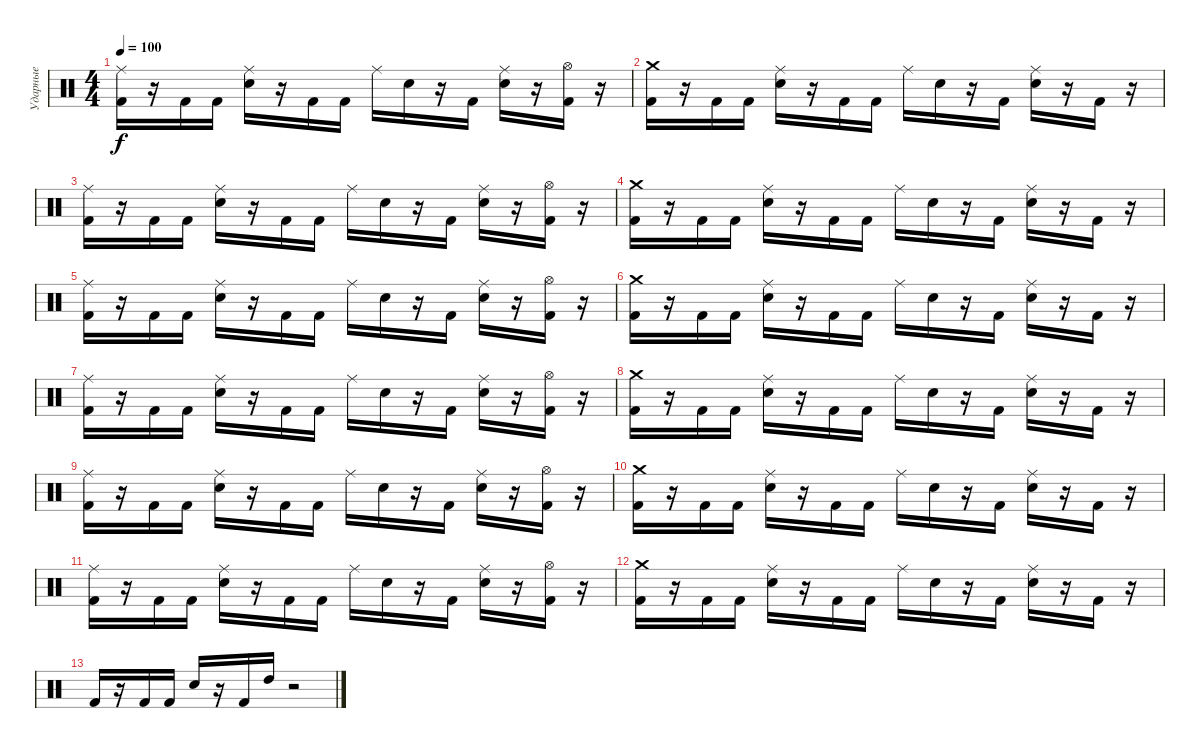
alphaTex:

\track ("Ударные" "Ударные") {instrument percussion}
\staff {score}
\articulation defaults
\ts (4 4)
\tempo 100
\clef neutral
\ks c
("Kick (hit) 2" "Ride (middle)").16{dy f} r.16 "Kick (hit) 2".16 "Kick (hit) 2".16 ("Electric Snare (hit)" "Ride (middle)").16 r.16 "Kick (hit) 2".16 "Kick (hit) 2".16 "Ride (middle)".16 "Electric Snare (hit)".16 r.16 "Kick (hit) 2".16 ("Electric Snare (hit)" "Ride (middle)").16 r.16 ("Kick (hit) 2" "Hi-Hat (open)").16 r.16 |
("Kick (hit) 2" "Crash medium (hit)").16 r.16 "Kick (hit) 2".16 "Kick (hit) 2".16 ("Electric Snare (hit)" "Ride (middle)").16 r.16 "Kick (hit) 2".16 "Kick (hit) 2".16 "Ride (middle)".16 "Electric Snare (hit)".16 r.16 "Kick (hit) 2".16 ("Electric Snare (hit)" "Ride (middle)").16 r.16 "Kick (hit) 2".16 r.16 |
("Kick (hit) 2" "Ride (middle)").16 r.16 "Kick (hit) 2".16 "Kick (hit) 2".16 ("Electric Snare (hit)" "Ride (middle)").16 r.16 "Kick (hit) 2".16 "Kick (hit) 2".16 "Ride (middle)".16 "Electric Snare (hit)".16 r.16 "Kick (hit) 2".16 ("Electric Snare (hit)" "Ride (middle)").16 r.16 ("Kick (hit) 2" "Hi-Hat (open)").16 r.16 |
("Kick (hit) 2" "Crash medium (hit)").16 r.16 "Kick (hit) 2".16 "Kick (hit) 2".16 ("Electric Snare (hit)" "Ride (middle)").16 r.16 "Kick (hit) 2".16 "Kick (hit) 2".16 "Ride (middle)".16 "Electric Snare (hit)".16 r.16 "Kick (hit) 2".16 ("Electric Snare (hit)" "Ride (middle)").16 r.16 "Kick (hit) 2".16 r.16 |
("Kick (hit) 2" "Ride (middle)").16 r.16 "Kick (hit) 2".16 "Kick (hit) 2".16 ("Electric Snare (hit)" "Ride (middle)").16 r.16 "Kick (hit) 2".16 "Kick (hit) 2".16 "Ride (middle)".16 "Electric Snare (hit)".16 r.16 "Kick (hit) 2".16 ("Electric Snare (hit)" "Ride (middle)").16 r.16 ("Kick (hit) 2" "Hi-Hat (open)").16 r.16 |
("Kick (hit) 2" "Crash medium (hit)").16 r.16 "Kick (hit) 2".16 "Kick (hit) 2".16 ("Electric Snare (hit)" "Ride (middle)").16 r.16 "Kick (hit) 2".16 "Kick (hit) 2".16 "Ride (middle)".16 "Electric Snare (hit)".16 r.16 "Kick (hit) 2".16 ("Electric Snare (hit)" "Ride (middle)").16 r.16 "Kick (hit) 2".16 r.16 |
("Kick (hit) 2" "Ride (middle)").16 r.16 "Kick (hit) 2".16 "Kick (hit) 2".16 ("Electric Snare (hit)" "Ride (middle)").16 r.16 "Kick (hit) 2".16 "Kick (hit) 2".16 "Ride (middle)".16 "Electric Snare (hit)".16 r.16 "Kick (hit) 2".16 ("Electric Snare (hit)" "Ride (middle)").16 r.16 ("Kick (hit) 2" "Hi-Hat (open)").16 r.16 |
("Kick (hit) 2" "Crash medium (hit)").16 r.16 "Kick (hit) 2".16 "Kick (hit) 2".16 ("Electric Snare (hit)" "Ride (middle)").16 r.16 "Kick (hit) 2".16 "Kick (hit) 2".16 "Ride (middle)".16 "Electric Snare (hit)".16 r.16 "Kick (hit) 2".16 ("Electric Snare (hit)" "Ride (middle)").16 r.16 "Kick (hit) 2".16 r.16 |
("Kick (hit) 2" "Ride (middle)").16 r.16 "Kick (hit) 2".16 "Kick (hit) 2".16 ("Electric Snare (hit)" "Ride (middle)").16 r.16 "Kick (hit) 2".16 "Kick (hit) 2".16 "Ride (middle)".16 "Electric Snare (hit)".16 r.16 "Kick (hit) 2".16 ("Electric Snare (hit)" "Ride (middle)").16 r.16 ("Kick (hit) 2" "Hi-Hat (open)").16 r.16 |
("Kick (hit) 2" "Crash medium (hit)").16 r.16 "Kick (hit) 2".16 "Kick (hit) 2".16 ("Electric Snare (hit)" "Ride (middle)").16 r.16 "Kick (hit) 2".16 "Kick (hit) 2".16 "Ride (middle)".16 "Electric Snare (hit)".16 r.16 "Kick (hit) 2".16 ("Electric Snare (hit)" "Ride (middle)").16 r.16 "Kick (hit) 2".16 r.16 |
("Kick (hit) 2" "Ride (middle)").16 r.16 "Kick (hit) 2".16 "Kick (hit) 2".16 ("Electric Snare (hit)" "Ride (middle)").16 r.16 "Kick (hit) 2".16 "Kick (hit) 2".16 "Ride (middle)".16 "Electric Snare (hit)".16 r.16 "Kick (hit) 2".16 ("Electric Snare (hit)" "Ride (middle)").16 r.16 ("Kick (hit) 2" "Hi-Hat (open)").16 r.16 |
("Kick (hit) 2" "Crash medium (hit)").16 r.16 "Kick (hit) 2".16 "Kick (hit) 2".16 ("Electric Snare (hit)" "Ride (middle)").16 r.16 "Kick (hit) 2".16 "Kick (hit) 2".16 "Ride (middle)".16 "Electric Snare (hit)".16 r.16 "Kick (hit) 2".16 ("Electric Snare (hit)" "Ride (middle)").16 r.16 "Kick (hit) 2".16 r.16 |
"Kick (hit) 2".16 r.16 "Kick (hit) 2".16 "Kick (hit) 2".16 "Electric Snare (hit)".16 r.16 "Kick (hit) 2".16 "High Tom (hit)".16 r.2
